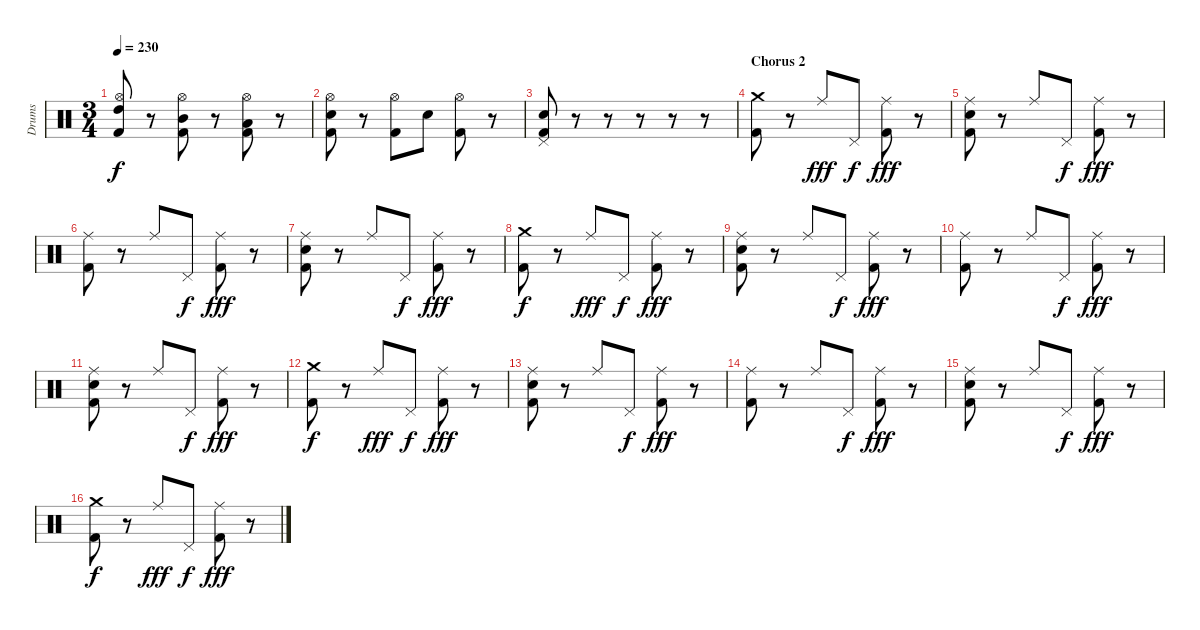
\track ("Drums" "Drums") {instrument percussion}
\staff {score}
\articulation defaults
\ts (3 4)
\tempo 230
\clef neutral
\ks c
("High Tom (hit)" "Hi-Hat (open)" "Kick (hit) 2").8{dy f} r.8 ("Mid Tom (hit)" "Hi-Hat (open)" "Kick (hit) 2").8 r.8 ("Hi-Hat (open)" "Low Tom (hit)" "Kick (hit) 2").8 r.8 |
("Hi-Hat (open)" "Electric Snare (hit)" "Kick (hit) 2").8 r.8 ("Hi-Hat (open)" "Kick (hit) 2").8 "Electric Snare (hit)".8 ("Hi-Hat (open)" "Kick (hit) 2").8 r.8 |
("Pedal Hi-Hat (hit)" "Electric Snare (hit)" "Kick (hit) 2").8 r.8 r.8 r.8 r.8 r.8 |
\section ("" "Chorus 2")
("Crash medium (hit)" "Kick (hit) 2").8 r.8 "Ride (middle)".8{dy fff} "Pedal Hi-Hat (hit)".8{dy f} ("Ride (middle)" "Kick (hit) 2").8{dy fff} r.8 |
("Ride (middle)" "Electric Snare (hit)" "Kick (hit) 2").8 r.8 "Ride (middle)".8 "Pedal Hi-Hat (hit)".8{dy f} ("Ride (middle)" "Kick (hit) 2").8{dy fff} r.8 |
("Ride (middle)" "Kick (hit) 2").8 r.8 "Ride (middle)".8 "Pedal Hi-Hat (hit)".8{dy f} ("Ride (middle)" "Kick (hit) 2").8{dy fff} r.8 |
("Ride (middle)" "Electric Snare (hit)" "Kick (hit) 2").8 r.8 "Ride (middle)".8 "Pedal Hi-Hat (hit)".8{dy f} ("Ride (middle)" "Kick (hit) 2").8{dy fff} r.8 |
("Crash medium (hit)" "Kick (hit) 2").8{dy f} r.8 "Ride (middle)".8{dy fff} "Pedal Hi-Hat (hit)".8{dy f} ("Ride (middle)" "Kick (hit) 2").8{dy fff} r.8 |
("Ride (middle)" "Electric Snare (hit)" "Kick (hit) 2").8 r.8 "Ride (middle)".8 "Pedal Hi-Hat (hit)".8{dy f} ("Ride (middle)" "Kick (hit) 2").8{dy fff} r.8 |
("Ride (middle)" "Kick (hit) 2").8 r.8 "Ride (middle)".8 "Pedal Hi-Hat (hit)".8{dy f} ("Ride (middle)" "Kick (hit) 2").8{dy fff} r.8 |
("Ride (middle)" "Electric Snare (hit)" "Kick (hit) 2").8 r.8 "Ride (middle)".8 "Pedal Hi-Hat (hit)".8{dy f} ("Ride (middle)" "Kick (hit) 2").8{dy fff} r.8 |
("Crash medium (hit)" "Kick (hit) 2").8{dy f} r.8 "Ride (middle)".8{dy fff} "Pedal Hi-Hat (hit)".8{dy f} ("Ride (middle)" "Kick (hit) 2").8{dy fff} r.8 |
("Ride (middle)" "Electric Snare (hit)" "Kick (hit) 2").8 r.8 "Ride (middle)".8 "Pedal Hi-Hat (hit)".8{dy f} ("Ride (middle)" "Kick (hit) 2").8{dy fff} r.8 |
("Ride (middle)" "Kick (hit) 2").8 r.8 "Ride (middle)".8 "Pedal Hi-Hat (hit)".8{dy f} ("Ride (middle)" "Kick (hit) 2").8{dy fff} r.8 |
("Ride (middle)" "Electric Snare (hit)" "Kick (hit) 2").8 r.8 "Ride (middle)".8 "Pedal Hi-Hat (hit)".8{dy f} ("Ride (middle)" "Kick (hit) 2").8{dy fff} r.8 |
("Crash medium (hit)" "Kick (hit) 2").8{dy f} r.8 "Ride (middle)".8{dy fff} "Pedal Hi-Hat (hit)".8{dy f} ("Ride (middle)" "Kick (hit) 2").8{dy fff} r.8
